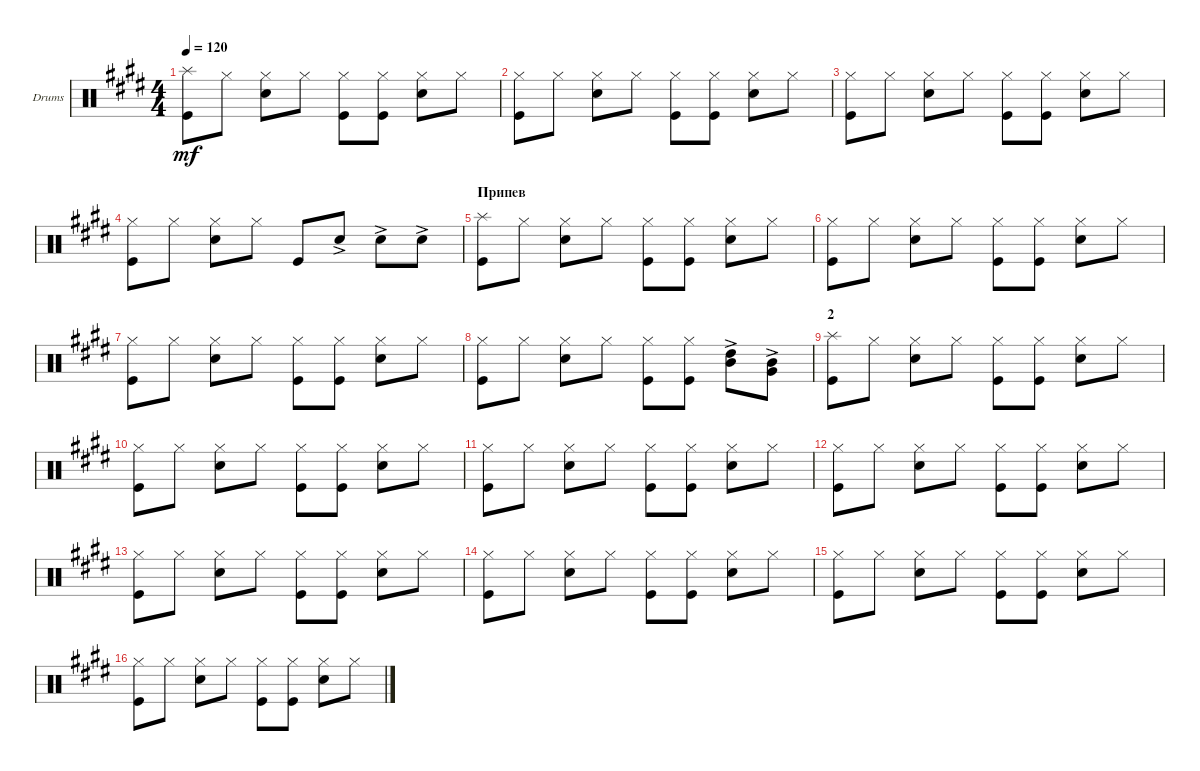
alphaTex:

\defaultSystemsLayout 4
\bracketExtendMode groupsimilarinstruments
\firstSystemTrackNameOrientation horizontal
\otherSystemsTrackNameOrientation horizontal
\track ("Drumkit" "Drums") {instrument percussion}
\staff {score}
\articulation defaults
\ts (4 4)
\tempo 120
\clef neutral
\scale
0.25
\ks c#minor
("Kick (hit)" "Splash (hit)").8{dy mf} "Hi-Hat (closed)".8 ("Hi-Hat (closed)" "Snare (hit) 2").8 "Hi-Hat (closed)".8 ("Kick (hit)" "Hi-Hat (closed)").8 ("Hi-Hat (closed)" "Kick (hit)").8 ("Hi-Hat (closed)" "Snare (hit) 2").8 "Hi-Hat (closed)".8 |
\scale
0.25 ("Kick (hit)" "Hi-Hat (closed)").8 "Hi-Hat (closed)".8 ("Hi-Hat (closed)" "Snare (hit) 2").8 "Hi-Hat (closed)".8 ("Kick (hit)" "Hi-Hat (closed)").8 ("Hi-Hat (closed)" "Kick (hit)").8 ("Hi-Hat (closed)" "Snare (hit) 2").8 "Hi-Hat (closed)".8 |
\scale
0.25 ("Kick (hit)" "Hi-Hat (closed)").8 "Hi-Hat (closed)".8 ("Hi-Hat (closed)" "Snare (hit) 2").8 "Hi-Hat (closed)".8 ("Kick (hit)" "Hi-Hat (closed)").8 ("Hi-Hat (closed)" "Kick (hit)").8 ("Hi-Hat (closed)" "Snare (hit) 2").8 "Hi-Hat (closed)".8 |
\scale
0.25 ("Kick (hit)" "Hi-Hat (closed)").8 "Hi-Hat (closed)".8 ("Hi-Hat (closed)" "Snare (hit) 2").8 "Hi-Hat (closed)".8 "Kick (hit)".8 "Snare (hit) 2"{ac}.8 "Snare (hit) 2"{ac}.8 "Snare (hit) 2"{ac}.8 |
\section ("" "Припев")
\scale
0.25 ("Kick (hit)" "Splash (hit)").8 "Hi-Hat (closed)".8 ("Hi-Hat (closed)" "Snare (hit) 2").8 "Hi-Hat (closed)".8 ("Kick (hit)" "Hi-Hat (closed)").8 ("Hi-Hat (closed)" "Kick (hit)").8 ("Hi-Hat (closed)" "Snare (hit) 2").8 "Hi-Hat (closed)".8 |
\scale
0.25 ("Kick (hit)" "Hi-Hat (closed)").8 "Hi-Hat (closed)".8 ("Hi-Hat (closed)" "Snare (hit) 2").8 "Hi-Hat (closed)".8 ("Kick (hit)" "Hi-Hat (closed)").8 ("Hi-Hat (closed)" "Kick (hit)").8 ("Hi-Hat (closed)" "Snare (hit) 2").8 "Hi-Hat (closed)".8 |
\scale
0.25 ("Kick (hit)" "Hi-Hat (closed)").8 "Hi-Hat (closed)".8 ("Hi-Hat (closed)" "Snare (hit) 2").8 "Hi-Hat (closed)".8 ("Kick (hit)" "Hi-Hat (closed)").8 ("Hi-Hat (closed)" "Kick (hit)").8 ("Hi-Hat (closed)" "Snare (hit) 2").8 "Hi-Hat (closed)".8 |
\scale
0.25 ("Kick (hit)" "Hi-Hat (closed)").8 "Hi-Hat (closed)".8 ("Hi-Hat (closed)" "Snare (hit) 2").8 "Hi-Hat (closed)".8 ("Kick (hit)" "Hi-Hat (closed)").8 ("Hi-Hat (closed)" "Kick (hit)").8 ("High Tom (hit)"{ac} "Mid Tom (hit)"{ac}).8 ("Mid Tom (hit)"{ac} "Very Low Tom (hit)"{ac}).8 |
\section ("" "2")
\scale
0.25 ("Kick (hit)" "Splash (hit)").8 "Hi-Hat (closed)".8 ("Hi-Hat (closed)" "Snare (hit) 2").8 "Hi-Hat (closed)".8 ("Kick (hit)" "Hi-Hat (closed)").8 ("Hi-Hat (closed)" "Kick (hit)").8 ("Hi-Hat (closed)" "Snare (hit) 2").8 "Hi-Hat (closed)".8 |
\scale
0.25 ("Kick (hit)" "Hi-Hat (closed)").8 "Hi-Hat (closed)".8 ("Hi-Hat (closed)" "Snare (hit) 2").8 "Hi-Hat (closed)".8 ("Kick (hit)" "Hi-Hat (closed)").8 ("Hi-Hat (closed)" "Kick (hit)").8 ("Hi-Hat (closed)" "Snare (hit) 2").8 "Hi-Hat (closed)".8 |
\scale
0.25 ("Kick (hit)" "Hi-Hat (closed)").8 "Hi-Hat (closed)".8 ("Hi-Hat (closed)" "Snare (hit) 2").8 "Hi-Hat (closed)".8 ("Kick (hit)" "Hi-Hat (closed)").8 ("Hi-Hat (closed)" "Kick (hit)").8 ("Hi-Hat (closed)" "Snare (hit) 2").8 "Hi-Hat (closed)".8 |
\scale
0.25 ("Kick (hit)" "Hi-Hat (closed)").8 "Hi-Hat (closed)".8 ("Hi-Hat (closed)" "Snare (hit) 2").8 "Hi-Hat (closed)".8 ("Kick (hit)" "Hi-Hat (closed)").8 ("Hi-Hat (closed)" "Kick (hit)").8 ("Hi-Hat (closed)" "Snare (hit) 2").8 "Hi-Hat (closed)".8 |
\scale
0.25 ("Kick (hit)" "Hi-Hat (closed)").8 "Hi-Hat (closed)".8 ("Hi-Hat (closed)" "Snare (hit) 2").8 "Hi-Hat (closed)".8 ("Kick (hit)" "Hi-Hat (closed)").8 ("Hi-Hat (closed)" "Kick (hit)").8 ("Hi-Hat (closed)" "Snare (hit) 2").8 "Hi-Hat (closed)".8 |
\scale
0.25 ("Kick (hit)" "Hi-Hat (closed)").8 "Hi-Hat (closed)".8 ("Hi-Hat (closed)" "Snare (hit) 2").8 "Hi-Hat (closed)".8 ("Kick (hit)" "Hi-Hat (closed)").8 ("Hi-Hat (closed)" "Kick (hit)").8 ("Hi-Hat (closed)" "Snare (hit) 2").8 "Hi-Hat (closed)".8 |
\scale
0.25 ("Kick (hit)" "Hi-Hat (closed)").8 "Hi-Hat (closed)".8 ("Hi-Hat (closed)" "Snare (hit) 2").8 "Hi-Hat (closed)".8 ("Kick (hit)" "Hi-Hat (closed)").8 ("Hi-Hat (closed)" "Kick (hit)").8 ("Hi-Hat (closed)" "Snare (hit) 2").8 "Hi-Hat (closed)".8 |
\scale
0.25 ("Kick (hit)" "Hi-Hat (closed)").8 "Hi-Hat (closed)".8 ("Hi-Hat (closed)" "Snare (hit) 2").8 "Hi-Hat (closed)".8 ("Kick (hit)" "Hi-Hat (closed)").8 ("Hi-Hat (closed)" "Kick (hit)").8 ("Hi-Hat (closed)" "Snare (hit) 2").8 "Hi-Hat (closed)".8
